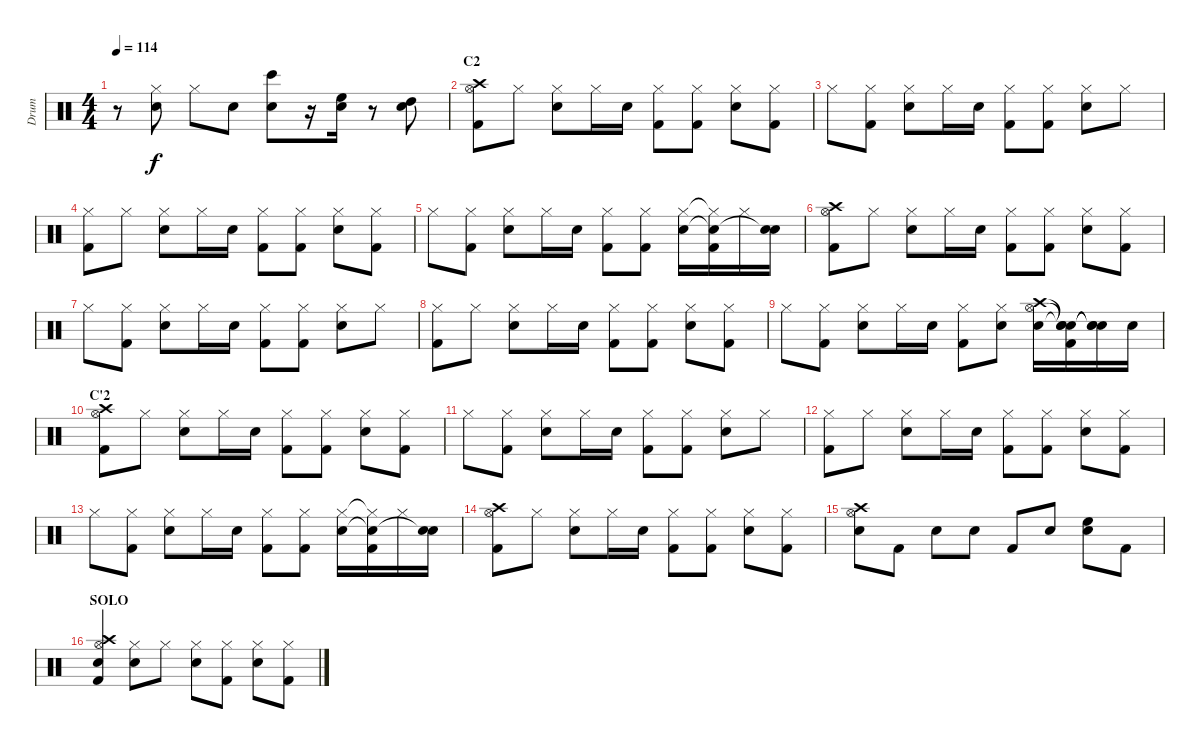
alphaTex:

\track ("Drum" "Drum") {instrument percussion}
\staff {score}
\articulation defaults
\ts (4 4)
\tempo 114
\clef neutral
\ks c
r.8{dy f} ("Hi-Hat (closed)" "Snare (hit) 2").8 "Hi-Hat (closed)".8 "Snare (hit) 2".8 ("Bongo High (hit)" "Snare (hit) 2").8 r.16 ("High Floor Tom (hit)" "Snare (hit) 2").16 r.8 ("High Tom (hit)" "Snare (hit) 2").8 |
\section ("" "C2")
("Crash high (hit)" "Hi-Hat (open)" "Kick (hit) 2").8 "Hi-Hat (closed)".8 ("Hi-Hat (closed)" "Snare (hit) 2").8 "Hi-Hat (closed)".16 "Snare (hit) 2".16 ("Hi-Hat (closed)" "Kick (hit) 2").8 ("Hi-Hat (closed)" "Kick (hit) 2").8 ("Hi-Hat (closed)" "Snare (hit) 2").8 ("Hi-Hat (closed)" "Kick (hit) 2").8 |
"Hi-Hat (closed)".8 ("Hi-Hat (closed)" "Kick (hit) 2").8 ("Hi-Hat (closed)" "Snare (hit) 2").8 "Hi-Hat (closed)".16 "Snare (hit) 2".16 ("Hi-Hat (closed)" "Kick (hit) 2").8 ("Hi-Hat (closed)" "Kick (hit) 2").8 ("Hi-Hat (closed)" "Snare (hit) 2").8 "Hi-Hat (closed)".8 |
("Hi-Hat (closed)" "Kick (hit) 2").8 "Hi-Hat (closed)".8 ("Hi-Hat (closed)" "Snare (hit) 2").8 "Hi-Hat (closed)".16 "Snare (hit) 2".16 ("Hi-Hat (closed)" "Kick (hit) 2").8 ("Hi-Hat (closed)" "Kick (hit) 2").8 ("Hi-Hat (closed)" "Snare (hit) 2").8 ("Hi-Hat (closed)" "Kick (hit) 2").8 |
"Hi-Hat (closed)".8 ("Hi-Hat (closed)" "Kick (hit) 2").8 ("Hi-Hat (closed)" "Snare (hit) 2").8 "Hi-Hat (closed)".16 "Snare (hit) 2".16 ("Hi-Hat (closed)" "Kick (hit) 2").8 ("Hi-Hat (closed)" "Kick (hit) 2").8 ("Hi-Hat (closed)" "Snare (hit) 2").16 ("Hi-Hat (closed)"{t} "Snare (hit)"{t} "Kick (hit) 2").16 "Hi-Hat (closed)".16 ("Snare (hit) 2" "Snare (hit)"{t}).16 |
("Crash high (hit)" "Hi-Hat (open)" "Kick (hit) 2").8 "Hi-Hat (closed)".8 ("Hi-Hat (closed)" "Snare (hit) 2").8 "Hi-Hat (closed)".16 "Snare (hit) 2".16 ("Hi-Hat (closed)" "Kick (hit) 2").8 ("Hi-Hat (closed)" "Kick (hit) 2").8 ("Hi-Hat (closed)" "Snare (hit) 2").8 ("Hi-Hat (closed)" "Kick (hit) 2").8 |
"Hi-Hat (closed)".8 ("Hi-Hat (closed)" "Kick (hit) 2").8 ("Hi-Hat (closed)" "Snare (hit) 2").8 "Hi-Hat (closed)".16 "Snare (hit) 2".16 ("Hi-Hat (closed)" "Kick (hit) 2").8 ("Hi-Hat (closed)" "Kick (hit) 2").8 ("Hi-Hat (closed)" "Snare (hit) 2").8 "Hi-Hat (closed)".8 |
("Hi-Hat (closed)" "Kick (hit) 2").8 "Hi-Hat (closed)".8 ("Hi-Hat (closed)" "Snare (hit) 2").8 "Hi-Hat (closed)".16 "Snare (hit) 2".16 ("Hi-Hat (closed)" "Kick (hit) 2").8 ("Hi-Hat (closed)" "Kick (hit) 2").8 ("Hi-Hat (closed)" "Snare (hit) 2").8 ("Hi-Hat (closed)" "Kick (hit) 2").8 |
"Hi-Hat (closed)".8 ("Hi-Hat (closed)" "Kick (hit) 2").8 ("Hi-Hat (closed)" "Snare (hit) 2").8 "Hi-Hat (closed)".16 "Snare (hit) 2".16 ("Hi-Hat (closed)" "Kick (hit) 2").8 ("Hi-Hat (closed)" "Snare (hit) 2").8 ("Crash high (hit)" "Hi-Hat (open)" "Snare (hit) 2").16 ("Snare (hit)"{t} "Snare (hit)"{t} "Snare (hit)"{t} "Kick (hit) 2").16 ("Snare (hit)"{t} "Snare (hit)"{t} "Snare (hit)"{t}).16 "Snare (hit) 2".16 |
\section ("" "C'2")
("Crash high (hit)" "Hi-Hat (open)" "Kick (hit) 2").8 "Hi-Hat (closed)".8 ("Hi-Hat (closed)" "Snare (hit) 2").8 "Hi-Hat (closed)".16 "Snare (hit) 2".16 ("Hi-Hat (closed)" "Kick (hit) 2").8 ("Hi-Hat (closed)" "Kick (hit) 2").8 ("Hi-Hat (closed)" "Snare (hit) 2").8 ("Hi-Hat (closed)" "Kick (hit) 2").8 |
"Hi-Hat (closed)".8 ("Hi-Hat (closed)" "Kick (hit) 2").8 ("Hi-Hat (closed)" "Snare (hit) 2").8 "Hi-Hat (closed)".16 "Snare (hit) 2".16 ("Hi-Hat (closed)" "Kick (hit) 2").8 ("Hi-Hat (closed)" "Kick (hit) 2").8 ("Hi-Hat (closed)" "Snare (hit) 2").8 "Hi-Hat (closed)".8 |
("Hi-Hat (closed)" "Kick (hit) 2").8 "Hi-Hat (closed)".8 ("Hi-Hat (closed)" "Snare (hit) 2").8 "Hi-Hat (closed)".16 "Snare (hit) 2".16 ("Hi-Hat (closed)" "Kick (hit) 2").8 ("Hi-Hat (closed)" "Kick (hit) 2").8 ("Hi-Hat (closed)" "Snare (hit) 2").8 ("Hi-Hat (closed)" "Kick (hit) 2").8 |
"Hi-Hat (closed)".8 ("Hi-Hat (closed)" "Kick (hit) 2").8 ("Hi-Hat (closed)" "Snare (hit) 2").8 "Hi-Hat (closed)".16 "Snare (hit) 2".16 ("Hi-Hat (closed)" "Kick (hit) 2").8 ("Hi-Hat (closed)" "Kick (hit) 2").8 ("Hi-Hat (closed)" "Snare (hit) 2").16 ("Hi-Hat (closed)"{t} "Snare (hit)"{t} "Kick (hit) 2").16 "Hi-Hat (closed)".16 ("Snare (hit) 2" "Snare (hit)"{t}).16 |
("Crash high (hit)" "Hi-Hat (open)" "Kick (hit) 2").8 "Hi-Hat (closed)".8 ("Hi-Hat (closed)" "Snare (hit) 2").8 "Hi-Hat (closed)".16 "Snare (hit) 2".16 ("Hi-Hat (closed)" "Kick (hit) 2").8 ("Hi-Hat (closed)" "Kick (hit) 2").8 ("Hi-Hat (closed)" "Snare (hit) 2").8 ("Hi-Hat (closed)" "Kick (hit) 2").8 |
("Crash high (hit)" "Hi-Hat (open)" "Snare (hit) 2").8 "Kick (hit) 2".8 "Snare (hit) 2".8 "Snare (hit) 2".8 "Kick (hit) 2".8 "Snare (hit) 2".8 ("High Floor Tom (hit)" "Snare (hit) 2").8 "Kick (hit) 2".8 |
\section ("" "SOLO")
("Crash high (hit)" "Hi-Hat (open)" "Snare (hit) 2" "Kick (hit) 2").4 ("Hi-Hat (closed)" "Snare (hit) 2").8 "Hi-Hat (closed)".8 ("Hi-Hat (closed)" "Snare (hit) 2").8 ("Hi-Hat (closed)" "Kick (hit) 2").8 ("Hi-Hat (closed)" "Snare (hit) 2").8 ("Hi-Hat (closed)" "Kick (hit) 2").8
